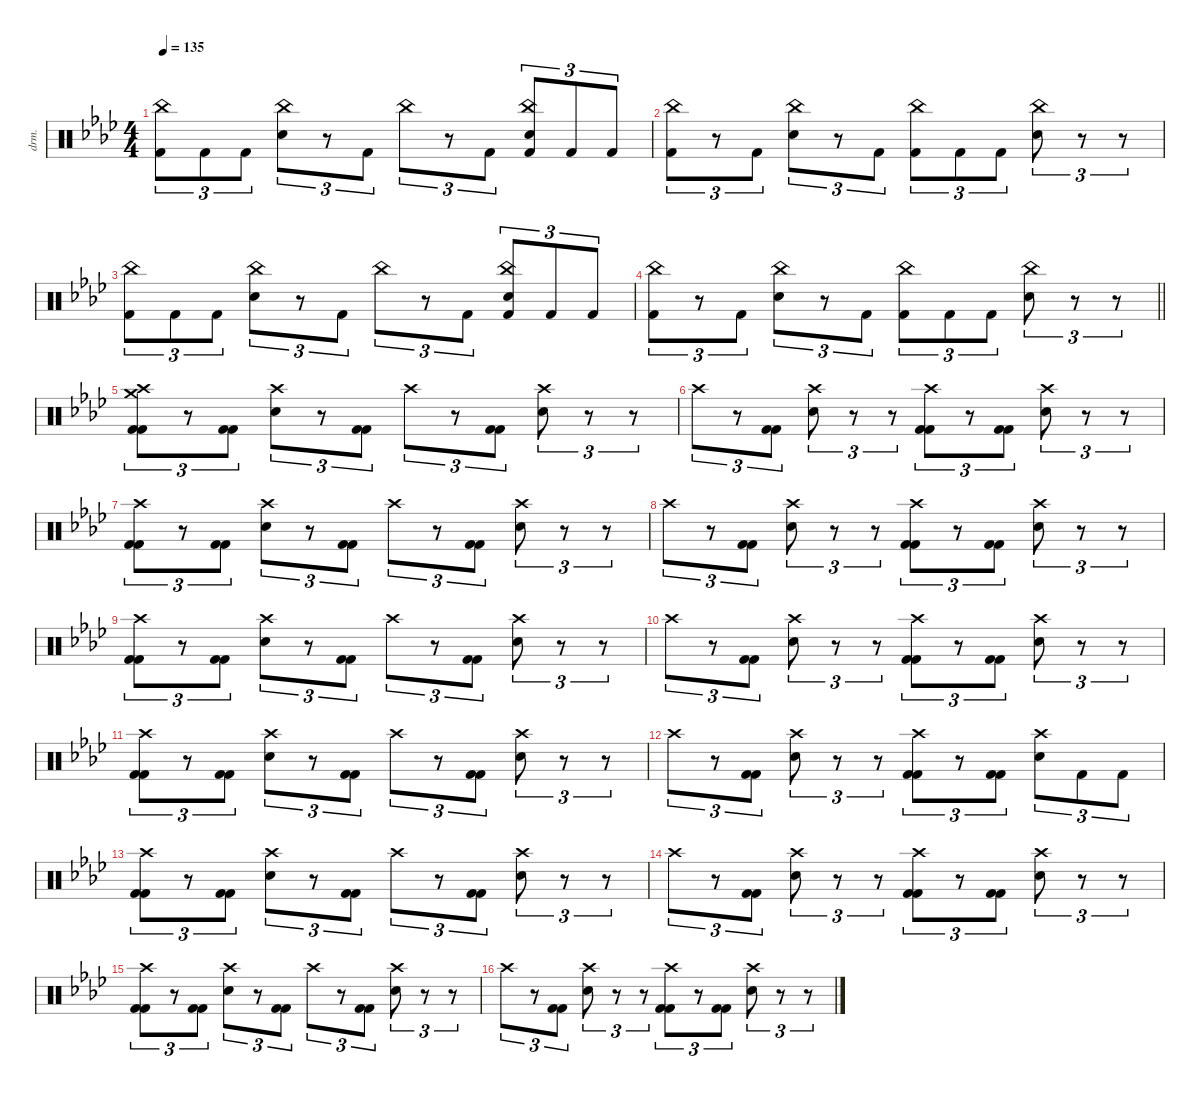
\defaultSystemsLayout 4
\hideDynamics
\bracketExtendMode nobrackets
\otherSystemsTrackNameOrientation horizontal
\track ("Drums" "drm.") {defaultSystemsLayout 4 instrument percussion}
\staff {score}
\articulation defaults
\ts (4 4)
\tempo 135
\clef neutral
\ks ab
("China (hit)"{acc forcenatural} "Kick (hit) 2"{acc forcenatural}).8{tu (3 2) dy f beam Down} "Kick (hit) 2"{acc forcenatural}.8{tu (3 2) beam Down} "Kick (hit) 2"{acc forcenatural}.8{tu (3 2) beam Down} ("China (hit)"{acc forcenatural} "Snare (hit) 2"{acc forcenatural}).8{tu (3 2) beam Down} r.8{tu (3 2) beam Down} "Kick (hit) 2"{acc forcenatural}.8{tu (3 2) beam Down} "China (hit)"{acc forcenatural}.8{tu (3 2) beam Down} r.8{tu (3 2) beam Down} "Kick (hit) 2"{acc forcenatural}.8{tu (3 2) beam Down} ("China (hit)"{acc forcenatural} "Snare (hit) 2"{acc forcenatural} "Kick (hit) 2"{acc forcenatural}).8{tu (3 2) beam Up} "Kick (hit) 2"{acc forcenatural}.8{tu (3 2) beam Up} "Kick (hit) 2"{acc forcenatural}.8{tu (3 2) beam Up} |
("China (hit)"{acc forcenatural} "Kick (hit) 2"{acc forcenatural}).8{tu (3 2) beam Down} r.8{tu (3 2) beam Down} "Kick (hit) 2"{acc forcenatural}.8{tu (3 2) beam Down} ("China (hit)"{acc forcenatural} "Snare (hit) 2"{acc forcenatural}).8{tu (3 2) beam Down} r.8{tu (3 2) beam Down} "Kick (hit) 2"{acc forcenatural}.8{tu (3 2) beam Down} ("China (hit)"{acc forcenatural} "Kick (hit) 2"{acc forcenatural}).8{tu (3 2) beam Down} "Kick (hit) 2"{acc forcenatural}.8{tu (3 2) beam Down} "Kick (hit) 2"{acc forcenatural}.8{tu (3 2) beam Down} ("China (hit)"{acc forcenatural} "Snare (hit) 2"{acc forcenatural}).8{tu (3 2) beam Down} r.8{tu (3 2) beam Down} r.8{tu (3 2) beam Down} |
("China (hit)"{acc forcenatural} "Kick (hit) 2"{acc forcenatural}).8{tu (3 2) beam Down} "Kick (hit) 2"{acc forcenatural}.8{tu (3 2) beam Down} "Kick (hit) 2"{acc forcenatural}.8{tu (3 2) beam Down} ("China (hit)"{acc forcenatural} "Snare (hit) 2"{acc forcenatural}).8{tu (3 2) beam Down} r.8{tu (3 2) beam Down} "Kick (hit) 2"{acc forcenatural}.8{tu (3 2) beam Down} "China (hit)"{acc forcenatural}.8{tu (3 2) beam Down} r.8{tu (3 2) beam Down} "Kick (hit) 2"{acc forcenatural}.8{tu (3 2) beam Down} ("China (hit)"{acc forcenatural} "Snare (hit) 2"{acc forcenatural} "Kick (hit) 2"{acc forcenatural}).8{tu (3 2) beam Up} "Kick (hit) 2"{acc forcenatural}.8{tu (3 2) beam Up} "Kick (hit) 2"{acc forcenatural}.8{tu (3 2) beam Up} |
\barLineRight lightlight
("China (hit)"{acc forcenatural} "Kick (hit) 2"{acc forcenatural}).8{tu (3 2) beam Down} r.8{tu (3 2) beam Down} "Kick (hit) 2"{acc forcenatural}.8{tu (3 2) beam Down} ("China (hit)"{acc forcenatural} "Snare (hit) 2"{acc forcenatural}).8{tu (3 2) beam Down} r.8{tu (3 2) beam Down} "Kick (hit) 2"{acc forcenatural}.8{tu (3 2) beam Down} ("China (hit)"{acc forcenatural} "Kick (hit) 2"{acc forcenatural}).8{tu (3 2) beam Down} "Kick (hit) 2"{acc forcenatural}.8{tu (3 2) beam Down} "Kick (hit) 2"{acc forcenatural}.8{tu (3 2) beam Down} ("China (hit)"{acc forcenatural} "Snare (hit) 2"{acc forcenatural}).8{tu (3 2) beam Down} r.8{tu (3 2) beam Down} r.8{tu (3 2) beam Down} |
("Crash high (hit)"{acc forcenatural} "Crash medium (hit)"{acc forcenatural} "Kick (hit) 2"{acc forcenatural} "Kick (hit) 2"{acc forcenatural}).8{tu (3 2) beam Down} r.8{tu (3 2) beam Down} ("Kick (hit) 2"{acc forcenatural} "Kick (hit) 2"{acc forcenatural}).8{tu (3 2) beam Down} ("Crash high (hit)"{acc forcenatural} "Snare (hit) 2"{acc forcenatural}).8{tu (3 2) beam Down} r.8{tu (3 2) beam Down} ("Kick (hit) 2"{acc forcenatural} "Kick (hit) 2"{acc forcenatural}).8{tu (3 2) beam Down} "Crash high (hit)"{acc forcenatural}.8{tu (3 2) beam Down} r.8{tu (3 2) beam Down} ("Kick (hit) 2"{acc forcenatural} "Kick (hit) 2"{acc forcenatural}).8{tu (3 2) beam Down} ("Crash high (hit)"{acc forcenatural} "Snare (hit) 2"{acc forcenatural}).8{tu (3 2) beam Down} r.8{tu (3 2) beam Down} r.8{tu (3 2) beam Down} |
"Crash high (hit)"{acc forcenatural}.8{tu (3 2) beam Down} r.8{tu (3 2) beam Down} ("Kick (hit) 2"{acc forcenatural} "Kick (hit) 2"{acc forcenatural}).8{tu (3 2) beam Down} ("Crash high (hit)"{acc forcenatural} "Snare (hit) 2"{acc forcenatural}).8{tu (3 2) beam Down} r.8{tu (3 2) beam Down} r.8{tu (3 2) beam Down} ("Crash high (hit)"{acc forcenatural} "Kick (hit) 2"{acc forcenatural} "Kick (hit) 2"{acc forcenatural}).8{tu (3 2) beam Down} r.8{tu (3 2) beam Down} ("Kick (hit) 2"{acc forcenatural} "Kick (hit) 2"{acc forcenatural}).8{tu (3 2) beam Down} ("Crash high (hit)"{acc forcenatural} "Snare (hit) 2"{acc forcenatural}).8{tu (3 2) beam Down} r.8{tu (3 2) beam Down} r.8{tu (3 2) beam Down} |
("Crash high (hit)"{acc forcenatural} "Kick (hit) 2"{acc forcenatural} "Kick (hit) 2"{acc forcenatural}).8{tu (3 2) beam Down} r.8{tu (3 2) beam Down} ("Kick (hit) 2"{acc forcenatural} "Kick (hit) 2"{acc forcenatural}).8{tu (3 2) beam Down} ("Crash high (hit)"{acc forcenatural} "Snare (hit) 2"{acc forcenatural}).8{tu (3 2) beam Down} r.8{tu (3 2) beam Down} ("Kick (hit) 2"{acc forcenatural} "Kick (hit) 2"{acc forcenatural}).8{tu (3 2) beam Down} "Crash high (hit)"{acc forcenatural}.8{tu (3 2) beam Down} r.8{tu (3 2) beam Down} ("Kick (hit) 2"{acc forcenatural} "Kick (hit) 2"{acc forcenatural}).8{tu (3 2) beam Down} ("Crash high (hit)"{acc forcenatural} "Snare (hit) 2"{acc forcenatural}).8{tu (3 2) beam Down} r.8{tu (3 2) beam Down} r.8{tu (3 2) beam Down} |
"Crash high (hit)"{acc forcenatural}.8{tu (3 2) beam Down} r.8{tu (3 2) beam Down} ("Kick (hit) 2"{acc forcenatural} "Kick (hit) 2"{acc forcenatural}).8{tu (3 2) beam Down} ("Crash high (hit)"{acc forcenatural} "Snare (hit) 2"{acc forcenatural}).8{tu (3 2) beam Down} r.8{tu (3 2) beam Down} r.8{tu (3 2) beam Down} ("Crash high (hit)"{acc forcenatural} "Kick (hit) 2"{acc forcenatural} "Kick (hit) 2"{acc forcenatural}).8{tu (3 2) beam Down} r.8{tu (3 2) beam Down} ("Kick (hit) 2"{acc forcenatural} "Kick (hit) 2"{acc forcenatural}).8{tu (3 2) beam Down} ("Crash high (hit)"{acc forcenatural} "Snare (hit) 2"{acc forcenatural}).8{tu (3 2) beam Down} r.8{tu (3 2) beam Down} r.8{tu (3 2) beam Down} |
("Crash high (hit)"{acc forcenatural} "Kick (hit) 2"{acc forcenatural} "Kick (hit) 2"{acc forcenatural}).8{tu (3 2) beam Down} r.8{tu (3 2) beam Down} ("Kick (hit) 2"{acc forcenatural} "Kick (hit) 2"{acc forcenatural}).8{tu (3 2) beam Down} ("Crash high (hit)"{acc forcenatural} "Snare (hit) 2"{acc forcenatural}).8{tu (3 2) beam Down} r.8{tu (3 2) beam Down} ("Kick (hit) 2"{acc forcenatural} "Kick (hit) 2"{acc forcenatural}).8{tu (3 2) beam Down} "Crash high (hit)"{acc forcenatural}.8{tu (3 2) beam Down} r.8{tu (3 2) beam Down} ("Kick (hit) 2"{acc forcenatural} "Kick (hit) 2"{acc forcenatural}).8{tu (3 2) beam Down} ("Crash high (hit)"{acc forcenatural} "Snare (hit) 2"{acc forcenatural}).8{tu (3 2) beam Down} r.8{tu (3 2) beam Down} r.8{tu (3 2) beam Down} |
"Crash high (hit)"{acc forcenatural}.8{tu (3 2) beam Down} r.8{tu (3 2) beam Down} ("Kick (hit) 2"{acc forcenatural} "Kick (hit) 2"{acc forcenatural}).8{tu (3 2) beam Down} ("Crash high (hit)"{acc forcenatural} "Snare (hit) 2"{acc forcenatural}).8{tu (3 2) beam Down} r.8{tu (3 2) beam Down} r.8{tu (3 2) beam Down} ("Crash high (hit)"{acc forcenatural} "Kick (hit) 2"{acc forcenatural} "Kick (hit) 2"{acc forcenatural}).8{tu (3 2) beam Down} r.8{tu (3 2) beam Down} ("Kick (hit) 2"{acc forcenatural} "Kick (hit) 2"{acc forcenatural}).8{tu (3 2) beam Down} ("Crash high (hit)"{acc forcenatural} "Snare (hit) 2"{acc forcenatural}).8{tu (3 2) beam Down} r.8{tu (3 2) beam Down} r.8{tu (3 2) beam Down} |
("Crash high (hit)"{acc forcenatural} "Kick (hit) 2"{acc forcenatural} "Kick (hit) 2"{acc forcenatural}).8{tu (3 2) beam Down} r.8{tu (3 2) beam Down} ("Kick (hit) 2"{acc forcenatural} "Kick (hit) 2"{acc forcenatural}).8{tu (3 2) beam Down} ("Crash high (hit)"{acc forcenatural} "Snare (hit) 2"{acc forcenatural}).8{tu (3 2) beam Down} r.8{tu (3 2) beam Down} ("Kick (hit) 2"{acc forcenatural} "Kick (hit) 2"{acc forcenatural}).8{tu (3 2) beam Down} "Crash high (hit)"{acc forcenatural}.8{tu (3 2) beam Down} r.8{tu (3 2) beam Down} ("Kick (hit) 2"{acc forcenatural} "Kick (hit) 2"{acc forcenatural}).8{tu (3 2) beam Down} ("Crash high (hit)"{acc forcenatural} "Snare (hit) 2"{acc forcenatural}).8{tu (3 2) beam Down} r.8{tu (3 2) beam Down} r.8{tu (3 2) beam Down} |
"Crash high (hit)"{acc forcenatural}.8{tu (3 2) beam Down} r.8{tu (3 2) beam Down} ("Kick (hit) 2"{acc forcenatural} "Kick (hit) 2"{acc forcenatural}).8{tu (3 2) beam Down} ("Crash high (hit)"{acc forcenatural} "Snare (hit) 2"{acc forcenatural}).8{tu (3 2) beam Down} r.8{tu (3 2) beam Down} r.8{tu (3 2) beam Down} ("Crash high (hit)"{acc forcenatural} "Kick (hit) 2"{acc forcenatural} "Kick (hit) 2"{acc forcenatural}).8{tu (3 2) beam Down} r.8{tu (3 2) beam Down} ("Kick (hit) 2"{acc forcenatural} "Kick (hit) 2"{acc forcenatural}).8{tu (3 2) beam Down} ("Crash high (hit)"{acc forcenatural} "Snare (hit) 2"{acc forcenatural}).8{tu (3 2) beam Down} "Kick (hit) 2"{acc forcenatural}.8{tu (3 2) beam Down} "Kick (hit) 2"{acc forcenatural}.8{tu (3 2) beam Down} |
("Crash high (hit)"{acc forcenatural} "Kick (hit) 2"{acc forcenatural} "Kick (hit) 2"{acc forcenatural}).8{tu (3 2) beam Down} r.8{tu (3 2) beam Down} ("Kick (hit) 2"{acc forcenatural} "Kick (hit) 2"{acc forcenatural}).8{tu (3 2) beam Down} ("Crash high (hit)"{acc forcenatural} "Snare (hit) 2"{acc forcenatural}).8{tu (3 2) beam Down} r.8{tu (3 2) beam Down} ("Kick (hit) 2"{acc forcenatural} "Kick (hit) 2"{acc forcenatural}).8{tu (3 2) beam Down} "Crash high (hit)"{acc forcenatural}.8{tu (3 2) beam Down} r.8{tu (3 2) beam Down} ("Kick (hit) 2"{acc forcenatural} "Kick (hit) 2"{acc forcenatural}).8{tu (3 2) beam Down} ("Crash high (hit)"{acc forcenatural} "Snare (hit) 2"{acc forcenatural}).8{tu (3 2) beam Down} r.8{tu (3 2) beam Down} r.8{tu (3 2) beam Down} |
"Crash high (hit)"{acc forcenatural}.8{tu (3 2) beam Down} r.8{tu (3 2) beam Down} ("Kick (hit) 2"{acc forcenatural} "Kick (hit) 2"{acc forcenatural}).8{tu (3 2) beam Down} ("Crash high (hit)"{acc forcenatural} "Snare (hit) 2"{acc forcenatural}).8{tu (3 2) beam Down} r.8{tu (3 2) beam Down} r.8{tu (3 2) beam Down} ("Crash high (hit)"{acc forcenatural} "Kick (hit) 2"{acc forcenatural} "Kick (hit) 2"{acc forcenatural}).8{tu (3 2) beam Down} r.8{tu (3 2) beam Down} ("Kick (hit) 2"{acc forcenatural} "Kick (hit) 2"{acc forcenatural}).8{tu (3 2) beam Down} ("Crash high (hit)"{acc forcenatural} "Snare (hit) 2"{acc forcenatural}).8{tu (3 2) beam Down} r.8{tu (3 2) beam Down} r.8{tu (3 2) beam Down} |
("Crash high (hit)"{acc forcenatural} "Kick (hit) 2"{acc forcenatural} "Kick (hit) 2"{acc forcenatural}).8{tu (3 2) beam Down} r.8{tu (3 2) beam Down} ("Kick (hit) 2"{acc forcenatural} "Kick (hit) 2"{acc forcenatural}).8{tu (3 2) beam Down} ("Crash high (hit)"{acc forcenatural} "Snare (hit) 2"{acc forcenatural}).8{tu (3 2) beam Down} r.8{tu (3 2) beam Down} ("Kick (hit) 2"{acc forcenatural} "Kick (hit) 2"{acc forcenatural}).8{tu (3 2) beam Down} "Crash high (hit)"{acc forcenatural}.8{tu (3 2) beam Down} r.8{tu (3 2) beam Down} ("Kick (hit) 2"{acc forcenatural} "Kick (hit) 2"{acc forcenatural}).8{tu (3 2) beam Down} ("Crash high (hit)"{acc forcenatural} "Snare (hit) 2"{acc forcenatural}).8{tu (3 2) beam Down} r.8{tu (3 2) beam Down} r.8{tu (3 2) beam Down} |
"Crash high (hit)"{acc forcenatural}.8{tu (3 2) beam Down} r.8{tu (3 2) beam Down} ("Kick (hit) 2"{acc forcenatural} "Kick (hit) 2"{acc forcenatural}).8{tu (3 2) beam Down} ("Crash high (hit)"{acc forcenatural} "Snare (hit) 2"{acc forcenatural}).8{tu (3 2) beam Down} r.8{tu (3 2) beam Down} r.8{tu (3 2) beam Down} ("Crash high (hit)"{acc forcenatural} "Kick (hit) 2"{acc forcenatural} "Kick (hit) 2"{acc forcenatural}).8{tu (3 2) beam Down} r.8{tu (3 2) beam Down} ("Kick (hit) 2"{acc forcenatural} "Kick (hit) 2"{acc forcenatural}).8{tu (3 2) beam Down} ("Crash high (hit)"{acc forcenatural} "Snare (hit) 2"{acc forcenatural}).8{tu (3 2) beam Down} r.8{tu (3 2) beam Down} r.8{tu (3 2) beam Down}
